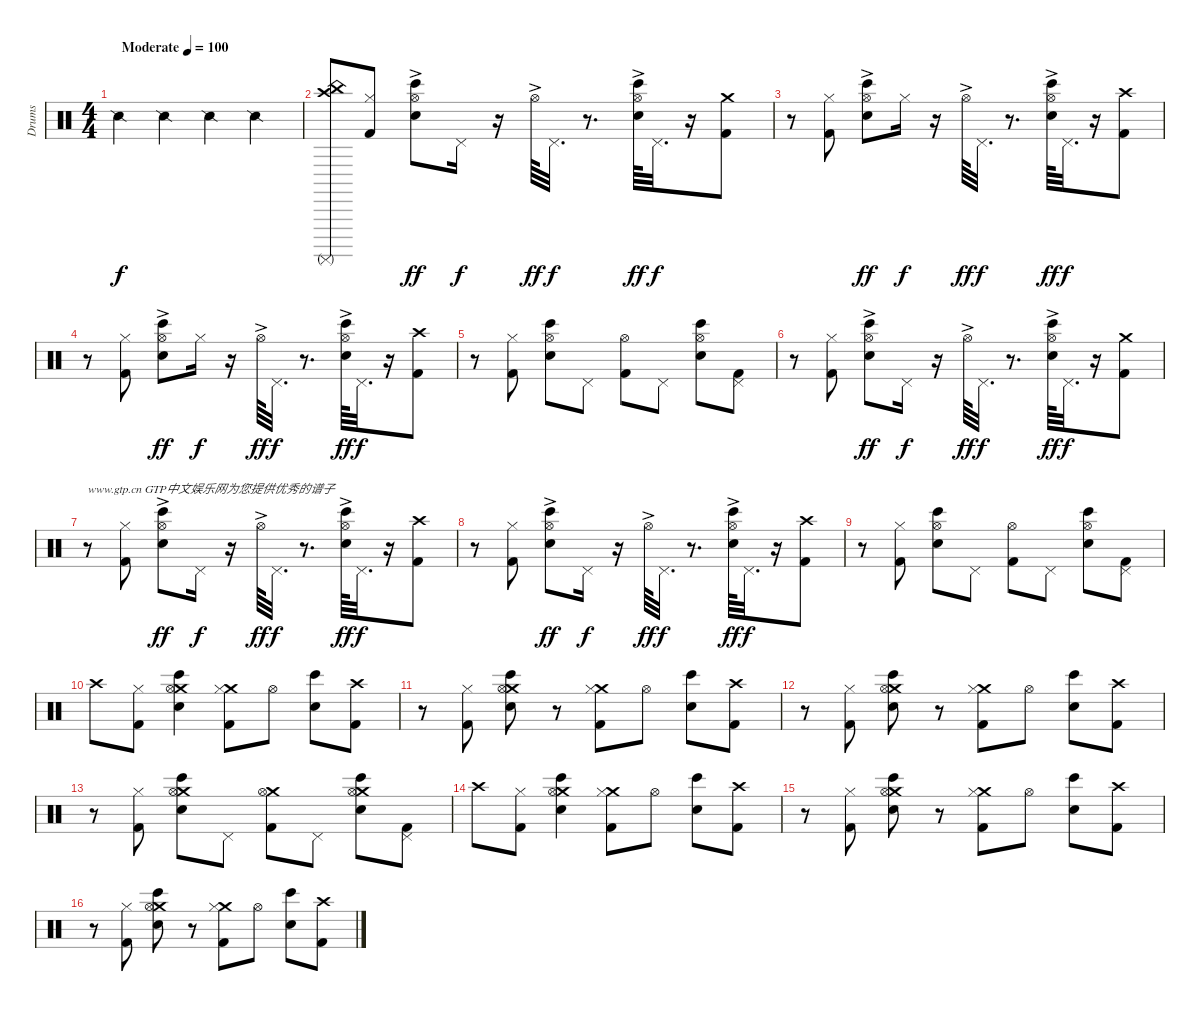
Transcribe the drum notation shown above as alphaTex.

\track ("Drums" "Drums") {instrument percussion}
\staff {score}
\articulation defaults
\ts (4 4)
\tempo (100 "Moderate")
\clef neutral
\ks c "Snare (side stick) 2".4{dy f} "Snare (side stick) 2".4 "Snare (side stick) 2".4 "Snare (side stick) 2".4
|
("China (hit)" "Crash high (hit)" "Surdo (mute)").8 ("Hi-Hat (closed)" "Kick (hit) 2").8 ("Hi-Hat (open)"{ac} "Bongo High (hit)" "Electric Snare (hit)").8{dy ff} "Pedal Hi-Hat (hit)".16{dy f} r.16 "Hi-Hat (open)"{ac}.64{dy ff} "Pedal Hi-Hat (hit)".32{d dy f} r.8{d} ("Hi-Hat (open)"{ac} "Bongo High (hit)" "Electric Snare (hit)").64{dy ff} "Pedal Hi-Hat (hit)".32{d dy f} r.16 ("Crash medium (hit)" "Kick (hit) 2").8 |
r.8 ("Hi-Hat (closed)" "Kick (hit) 2").8 ("Hi-Hat (open)"{ac} "Bongo High (hit)" "Electric Snare (hit)").8{dy ff} "Hi-Hat (closed)".16{dy f} r.16 "Hi-Hat (open)"{ac}.64{dy ff} "Pedal Hi-Hat (hit)".32{d dy f} r.8{d} ("Hi-Hat (open)"{ac} "Bongo High (hit)" "Electric Snare (hit)").64{dy ff} "Pedal Hi-Hat (hit)".32{d dy f} r.16 ("Crash high (hit)" "Kick (hit) 2").8 |
r.8 ("Hi-Hat (closed)" "Kick (hit) 2").8 ("Hi-Hat (open)"{ac} "Bongo High (hit)" "Electric Snare (hit)").8{dy ff} "Hi-Hat (closed)".16{dy f} r.16 "Hi-Hat (open)"{ac}.64{dy ff} "Pedal Hi-Hat (hit)".32{d dy f} r.8{d} ("Hi-Hat (open)"{ac} "Bongo High (hit)" "Electric Snare (hit)").64{dy ff} "Pedal Hi-Hat (hit)".32{d dy f} r.16 ("Crash high (hit)" "Kick (hit) 2").8 |
r.8 ("Hi-Hat (closed)" "Kick (hit) 2").8 ("Hi-Hat (open)" "Bongo High (hit)" "Electric Snare (hit)").8 "Pedal Hi-Hat (hit)".8 ("Hi-Hat (open)" "Kick (hit) 2").8 "Pedal Hi-Hat (hit)".8 ("Hi-Hat (open)" "Bongo High (hit)" "Electric Snare (hit)").8 ("Pedal Hi-Hat (hit)" "Kick (hit) 2").8 |
r.8 ("Hi-Hat (closed)" "Kick (hit) 2").8 ("Hi-Hat (open)"{ac} "Bongo High (hit)" "Electric Snare (hit)").8{dy ff} "Pedal Hi-Hat (hit)".16{dy f} r.16 "Hi-Hat (open)"{ac}.64{dy ff} "Pedal Hi-Hat (hit)".32{d dy f} r.8{d} ("Hi-Hat (open)"{ac} "Bongo High (hit)" "Electric Snare (hit)").64{dy ff} "Pedal Hi-Hat (hit)".32{d dy f} r.16 ("Crash medium (hit)" "Kick (hit) 2").8 |
r.8{txt "www.gtp.cn GTP中文娱乐网为您提供优秀的谱子"} ("Hi-Hat (closed)" "Kick (hit) 2").8 ("Hi-Hat (open)"{ac} "Bongo High (hit)" "Electric Snare (hit)").8{dy ff} "Pedal Hi-Hat (hit)".16{dy f} r.16 "Hi-Hat (open)"{ac}.64{dy ff} "Pedal Hi-Hat (hit)".32{d dy f} r.8{d} ("Hi-Hat (open)"{ac} "Bongo High (hit)" "Electric Snare (hit)").64{dy ff} "Pedal Hi-Hat (hit)".32{d dy f} r.16 ("Crash high (hit)" "Kick (hit) 2").8 |
r.8 ("Hi-Hat (closed)" "Kick (hit) 2").8 ("Hi-Hat (open)"{ac} "Bongo High (hit)" "Electric Snare (hit)").8{dy ff} "Pedal Hi-Hat (hit)".16{dy f} r.16 "Hi-Hat (open)"{ac}.64{dy ff} "Pedal Hi-Hat (hit)".32{d dy f} r.8{d} ("Hi-Hat (open)"{ac} "Bongo High (hit)" "Electric Snare (hit)").64{dy ff} "Pedal Hi-Hat (hit)".32{d dy f} r.16 ("Crash high (hit)" "Kick (hit) 2").8 |
r.8 ("Hi-Hat (closed)" "Kick (hit) 2").8 ("Hi-Hat (open)" "Bongo High (hit)" "Electric Snare (hit)").8 "Pedal Hi-Hat (hit)".8 ("Hi-Hat (open)" "Kick (hit) 2").8 "Pedal Hi-Hat (hit)".8 ("Hi-Hat (open)" "Bongo High (hit)" "Electric Snare (hit)").8 ("Pedal Hi-Hat (hit)" "Kick (hit) 2").8 |
"Crash high (hit)".8 ("Hi-Hat (closed)" "Kick (hit) 2").8 ("Crash medium (hit)" "Hi-Hat (open)" "Bongo High (hit)" "Electric Snare (hit)").4 ("Crash medium (hit)" "Hi-Hat (closed)" "Kick (hit) 2").8 "Hi-Hat (open)".8 ("Bongo High (hit)" "Electric Snare (hit)").8 ("Crash high (hit)" "Kick (hit) 2").8 |
r.8 ("Hi-Hat (closed)" "Kick (hit) 2").8 ("Crash medium (hit)" "Hi-Hat (open)" "Bongo High (hit)" "Electric Snare (hit)").8 r.8 ("Crash medium (hit)" "Hi-Hat (closed)" "Kick (hit) 2").8 "Hi-Hat (open)".8 ("Bongo High (hit)" "Electric Snare (hit)").8 ("Crash high (hit)" "Kick (hit) 2").8 |
r.8 ("Hi-Hat (closed)" "Kick (hit) 2").8 ("Crash medium (hit)" "Hi-Hat (open)" "Bongo High (hit)" "Electric Snare (hit)").8 r.8 ("Crash medium (hit)" "Hi-Hat (closed)" "Kick (hit) 2").8 "Hi-Hat (open)".8 ("Bongo High (hit)" "Electric Snare (hit)").8 ("Crash high (hit)" "Kick (hit) 2").8 |
r.8 ("Hi-Hat (closed)" "Kick (hit) 2").8 ("Crash medium (hit)" "Hi-Hat (open)" "Bongo High (hit)" "Electric Snare (hit)").8 "Pedal Hi-Hat (hit)".8 ("Crash medium (hit)" "Hi-Hat (open)" "Kick (hit) 2").8 "Pedal Hi-Hat (hit)".8 ("Crash medium (hit)" "Hi-Hat (open)" "Bongo High (hit)" "Electric Snare (hit)").8 ("Pedal Hi-Hat (hit)" "Kick (hit) 2").8 |
"Crash high (hit)".8 ("Hi-Hat (closed)" "Kick (hit) 2").8 ("Crash medium (hit)" "Hi-Hat (open)" "Bongo High (hit)" "Electric Snare (hit)").4 ("Crash medium (hit)" "Hi-Hat (closed)" "Kick (hit) 2").8 "Hi-Hat (open)".8 ("Bongo High (hit)" "Electric Snare (hit)").8 ("Crash high (hit)" "Kick (hit) 2").8 |
r.8 ("Hi-Hat (closed)" "Kick (hit) 2").8 ("Crash medium (hit)" "Hi-Hat (open)" "Bongo High (hit)" "Electric Snare (hit)").8 r.8 ("Crash medium (hit)" "Hi-Hat (closed)" "Kick (hit) 2").8 "Hi-Hat (open)".8 ("Bongo High (hit)" "Electric Snare (hit)").8 ("Crash high (hit)" "Kick (hit) 2").8 |
r.8 ("Hi-Hat (closed)" "Kick (hit) 2").8 ("Crash medium (hit)" "Hi-Hat (open)" "Bongo High (hit)" "Electric Snare (hit)").8 r.8 ("Crash medium (hit)" "Hi-Hat (closed)" "Kick (hit) 2").8 "Hi-Hat (open)".8 ("Bongo High (hit)" "Electric Snare (hit)").8 ("Crash high (hit)" "Kick (hit) 2").8
